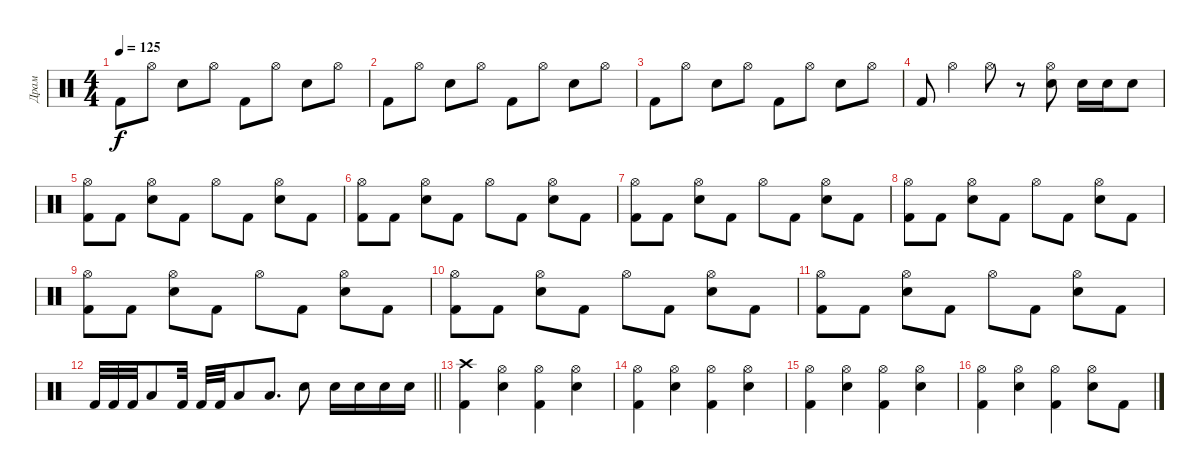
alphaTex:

\track ("Драм" "Драм") {instrument percussion}
\staff {score}
\articulation defaults
\ts (4 4)
\tempo 125
\clef neutral
\ks c "Kick (hit) 2".8{dy f} "Hi-Hat (open)".8 "Snare (hit) 2".8 "Hi-Hat (open)".8 "Kick (hit) 2".8 "Hi-Hat (open)".8 "Snare (hit) 2".8 "Hi-Hat (open)".8
|
"Kick (hit) 2".8 "Hi-Hat (open)".8 "Snare (hit) 2".8 "Hi-Hat (open)".8 "Kick (hit) 2".8 "Hi-Hat (open)".8 "Snare (hit) 2".8 "Hi-Hat (open)".8 |
"Kick (hit) 2".8 "Hi-Hat (open)".8 "Snare (hit) 2".8 "Hi-Hat (open)".8 "Kick (hit) 2".8 "Hi-Hat (open)".8 "Snare (hit) 2".8 "Hi-Hat (open)".8 |
"Kick (hit) 2".8 "Hi-Hat (open)".4 "Hi-Hat (open)".8 r.8 ("Hi-Hat (open)" "Snare (hit) 2").8 "Snare (hit) 2".16 "Snare (hit) 2".16 "Snare (hit) 2".8 |
("Hi-Hat (open)" "Kick (hit) 2").8 "Kick (hit) 2".8 ("Hi-Hat (open)" "Snare (hit) 2").8 "Kick (hit) 2".8 "Hi-Hat (open)".8 "Kick (hit) 2".8 ("Hi-Hat (open)" "Snare (hit) 2").8 "Kick (hit) 2".8 |
("Hi-Hat (open)" "Kick (hit) 2").8 "Kick (hit) 2".8 ("Hi-Hat (open)" "Snare (hit) 2").8 "Kick (hit) 2".8 "Hi-Hat (open)".8 "Kick (hit) 2".8 ("Hi-Hat (open)" "Snare (hit) 2").8 "Kick (hit) 2".8 |
("Hi-Hat (open)" "Kick (hit) 2").8 "Kick (hit) 2".8 ("Hi-Hat (open)" "Snare (hit) 2").8 "Kick (hit) 2".8 "Hi-Hat (open)".8 "Kick (hit) 2".8 ("Hi-Hat (open)" "Snare (hit) 2").8 "Kick (hit) 2".8 |
("Hi-Hat (open)" "Kick (hit) 2").8 "Kick (hit) 2".8 ("Hi-Hat (open)" "Snare (hit) 2").8 "Kick (hit) 2".8 "Hi-Hat (open)".8 "Kick (hit) 2".8 ("Hi-Hat (open)" "Snare (hit) 2").8 "Kick (hit) 2".8 |
("Hi-Hat (open)" "Kick (hit) 2").8 "Kick (hit) 2".8 ("Hi-Hat (open)" "Snare (hit) 2").8 "Kick (hit) 2".8 "Hi-Hat (open)".8 "Kick (hit) 2".8 ("Hi-Hat (open)" "Snare (hit) 2").8 "Kick (hit) 2".8 |
("Hi-Hat (open)" "Kick (hit) 2").8 "Kick (hit) 2".8 ("Hi-Hat (open)" "Snare (hit) 2").8 "Kick (hit) 2".8 "Hi-Hat (open)".8 "Kick (hit) 2".8 ("Hi-Hat (open)" "Snare (hit) 2").8 "Kick (hit) 2".8 |
("Hi-Hat (open)" "Kick (hit) 2").8 "Kick (hit) 2".8 ("Hi-Hat (open)" "Snare (hit) 2").8 "Kick (hit) 2".8 "Hi-Hat (open)".8 "Kick (hit) 2".8 ("Hi-Hat (open)" "Snare (hit) 2").8 "Kick (hit) 2".8 |
\barLineRight lightlight "Kick (hit) 2".32 "Kick (hit) 2".32 "Kick (hit) 2".32 "Low Tom (hit)".8 "Kick (hit) 2".32 "Kick (hit) 2".32 "Kick (hit) 2".32 "Low Tom (hit)".8 "Low Tom (hit)".8{d} "Snare (hit) 2".8 "Snare (hit) 2".16 "Snare (hit) 2".16 "Snare (hit) 2".16 "Snare (hit) 2".16
|
("Crash high (hit)" "Kick (hit) 2").4 ("Hi-Hat (open)" "Snare (hit) 2").4 ("Hi-Hat (open)" "Kick (hit) 2").4 ("Hi-Hat (open)" "Snare (hit) 2").4 |
("Hi-Hat (open)" "Kick (hit) 2").4 ("Hi-Hat (open)" "Snare (hit) 2").4 ("Hi-Hat (open)" "Kick (hit) 2").4 ("Hi-Hat (open)" "Snare (hit) 2").4 |
("Hi-Hat (open)" "Kick (hit) 2").4 ("Hi-Hat (open)" "Snare (hit) 2").4 ("Hi-Hat (open)" "Kick (hit) 2").4 ("Hi-Hat (open)" "Snare (hit) 2").4 |
("Hi-Hat (open)" "Kick (hit) 2").4 ("Hi-Hat (open)" "Snare (hit) 2").4 ("Hi-Hat (open)" "Kick (hit) 2").4 ("Hi-Hat (open)" "Snare (hit) 2").8 "Kick (hit) 2".8
